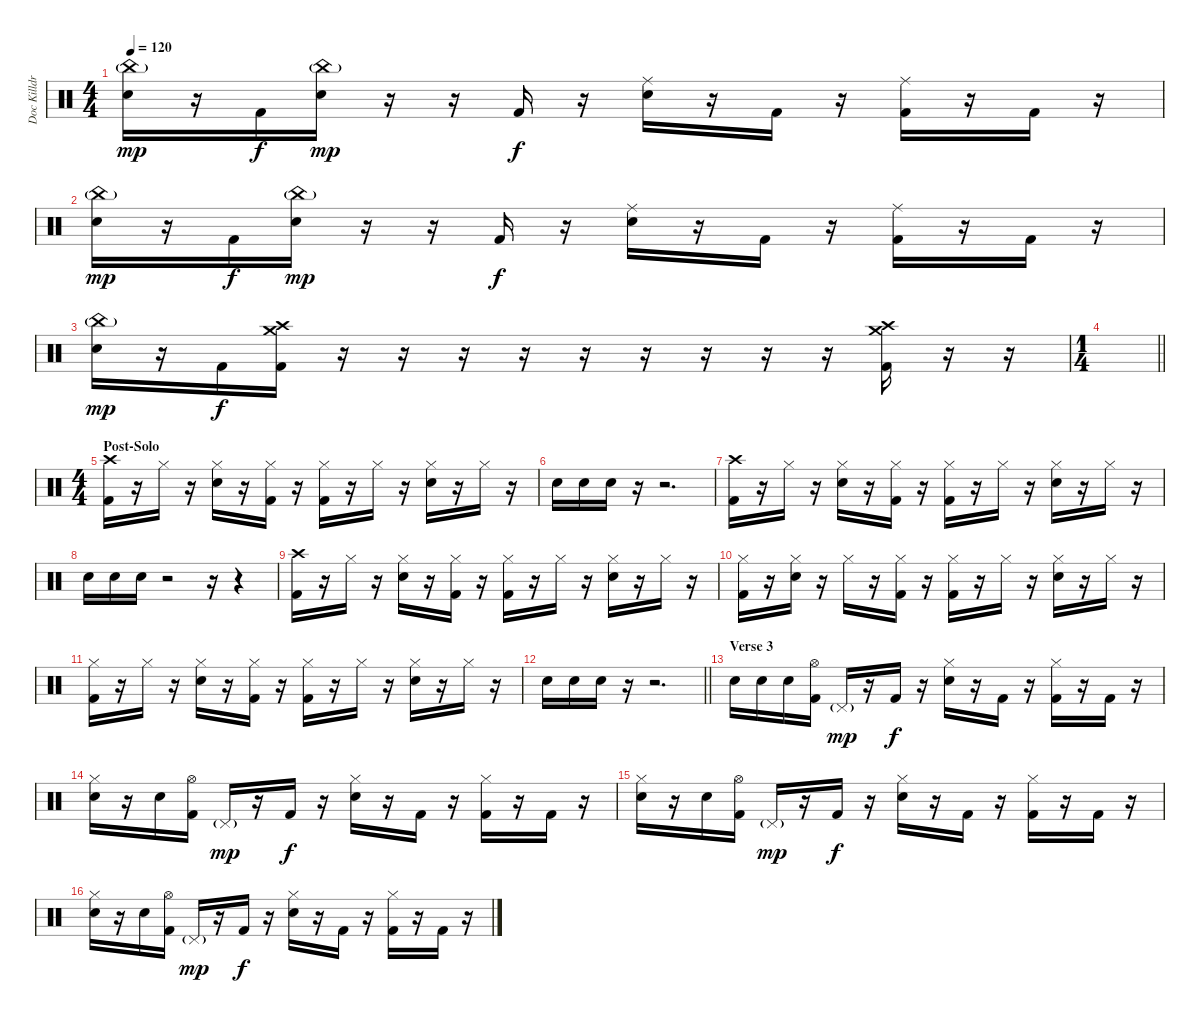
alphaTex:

\track ("Doc Killdrums (What else?)" "Doc Killdr") {instrument percussion}
\staff {score}
\articulation defaults
\ts (4 4)
\tempo 120
\clef neutral
\ks c
("Snare (hit) 2" "China (hit)"{g}).16{dy mp} r.16 "Kick (hit) 2".16{dy f} ("Snare (hit) 2" "China (hit)"{g}).16{dy mp} r.16 r.16 "Kick (hit) 2".16{dy f} r.16 ("Snare (hit) 2" "Ride (middle)").16 r.16 "Kick (hit) 2".16 r.16 ("Kick (hit) 2" "Ride (middle)").16 r.16 "Kick (hit) 2".16 r.16 |
("Snare (hit) 2" "China (hit)"{g}).16{dy mp} r.16 "Kick (hit) 2".16{dy f} ("Snare (hit) 2" "China (hit)"{g}).16{dy mp} r.16 r.16 "Kick (hit) 2".16{dy f} r.16 ("Snare (hit) 2" "Ride (middle)").16 r.16 "Kick (hit) 2".16 r.16 ("Kick (hit) 2" "Ride (middle)").16 r.16 "Kick (hit) 2".16 r.16 |
("Snare (hit) 2" "China (hit)"{g}).16{dy mp} r.16 "Kick (hit) 2".16{dy f} ("Kick (hit) 2" "Crash medium (hit)" "Crash high (hit)").16 r.16 r.16 r.16 r.16 r.16 r.16 r.16 r.16 r.16 ("Kick (hit) 2" "Crash medium (hit)" "Crash high (hit)").16 r.16 r.16 |
\ts (1 4)
\barLineRight lightlight
|
\ts (4 4)
\section ("" "Post-Solo")
("Kick (hit) 2" "Crash high (hit)").16 r.16 "Hi-Hat (closed)".16 r.16 ("Snare (hit) 2" "Hi-Hat (closed)").16 r.16 ("Kick (hit) 2" "Hi-Hat (closed)").16 r.16 ("Kick (hit) 2" "Hi-Hat (closed)").16 r.16 "Hi-Hat (closed)".16 r.16 ("Snare (hit) 2" "Hi-Hat (closed)").16 r.16 "Hi-Hat (closed)".16 r.16 |
"Snare (hit) 2".16 "Snare (hit) 2".16 "Snare (hit) 2".16 r.16 r.2{d} |
("Kick (hit) 2" "Crash high (hit)").16 r.16 "Hi-Hat (closed)".16 r.16 ("Snare (hit) 2" "Hi-Hat (closed)").16 r.16 ("Kick (hit) 2" "Hi-Hat (closed)").16 r.16 ("Kick (hit) 2" "Hi-Hat (closed)").16 r.16 "Hi-Hat (closed)".16 r.16 ("Snare (hit) 2" "Hi-Hat (closed)").16 r.16 "Hi-Hat (closed)".16 r.16 |
"Snare (hit) 2".16 "Snare (hit) 2".16 "Snare (hit) 2".16 r.2 r.16 r.4 |
("Kick (hit) 2" "Crash high (hit)").16 r.16 "Hi-Hat (closed)".16 r.16 ("Snare (hit) 2" "Hi-Hat (closed)").16 r.16 ("Kick (hit) 2" "Hi-Hat (closed)").16 r.16 ("Kick (hit) 2" "Hi-Hat (closed)").16 r.16 "Hi-Hat (closed)".16 r.16 ("Snare (hit) 2" "Hi-Hat (closed)").16 r.16 "Hi-Hat (closed)".16 r.16 |
("Kick (hit) 2" "Hi-Hat (closed)").16 r.16 ("Snare (hit) 2" "Hi-Hat (closed)").16 r.16 "Hi-Hat (closed)".16 r.16 ("Kick (hit) 2" "Hi-Hat (closed)").16 r.16 ("Kick (hit) 2" "Hi-Hat (closed)").16 r.16 "Hi-Hat (closed)".16 r.16 ("Snare (hit) 2" "Hi-Hat (closed)").16 r.16 "Hi-Hat (closed)".16 r.16 |
("Kick (hit) 2" "Hi-Hat (closed)").16 r.16 "Hi-Hat (closed)".16 r.16 ("Snare (hit) 2" "Hi-Hat (closed)").16 r.16 ("Kick (hit) 2" "Hi-Hat (closed)").16 r.16 ("Kick (hit) 2" "Hi-Hat (closed)").16 r.16 "Hi-Hat (closed)".16 r.16 ("Snare (hit) 2" "Hi-Hat (closed)").16 r.16 "Hi-Hat (closed)".16 r.16 |
\barLineRight lightlight "Snare (hit) 2".16 "Snare (hit) 2".16 "Snare (hit) 2".16
r.16 r.2{d} |
\section ("" "Verse 3")
"Snare (hit) 2".16 "Snare (hit) 2".16 "Snare (hit) 2".16 ("Kick (hit) 2" "Hi-Hat (open)").16 "Pedal Hi-Hat (hit)"{g}.16{dy mp} r.16 "Kick (hit) 2".16{dy f} r.16 ("Snare (hit) 2" "Hi-Hat (closed)").16 r.16 "Kick (hit) 2".16 r.16 ("Kick (hit) 2" "Hi-Hat (closed)").16 r.16 "Kick (hit) 2".16 r.16 |
("Snare (hit) 2" "Hi-Hat (closed)").16 r.16 "Snare (hit) 2".16 ("Kick (hit) 2" "Hi-Hat (open)").16 "Pedal Hi-Hat (hit)"{g}.16{dy mp} r.16 "Kick (hit) 2".16{dy f} r.16 ("Snare (hit) 2" "Hi-Hat (closed)").16 r.16 "Kick (hit) 2".16 r.16 ("Kick (hit) 2" "Hi-Hat (closed)").16 r.16 "Kick (hit) 2".16 r.16 |
("Snare (hit) 2" "Hi-Hat (closed)").16 r.16 "Snare (hit) 2".16 ("Kick (hit) 2" "Hi-Hat (open)").16 "Pedal Hi-Hat (hit)"{g}.16{dy mp} r.16 "Kick (hit) 2".16{dy f} r.16 ("Snare (hit) 2" "Hi-Hat (closed)").16 r.16 "Kick (hit) 2".16 r.16 ("Kick (hit) 2" "Hi-Hat (closed)").16 r.16 "Kick (hit) 2".16 r.16 |
("Snare (hit) 2" "Hi-Hat (closed)").16 r.16 "Snare (hit) 2".16 ("Kick (hit) 2" "Hi-Hat (open)").16 "Pedal Hi-Hat (hit)"{g}.16{dy mp} r.16 "Kick (hit) 2".16{dy f} r.16 ("Snare (hit) 2" "Hi-Hat (closed)").16 r.16 "Kick (hit) 2".16 r.16 ("Kick (hit) 2" "Hi-Hat (closed)").16 r.16 "Kick (hit) 2".16 r.16
